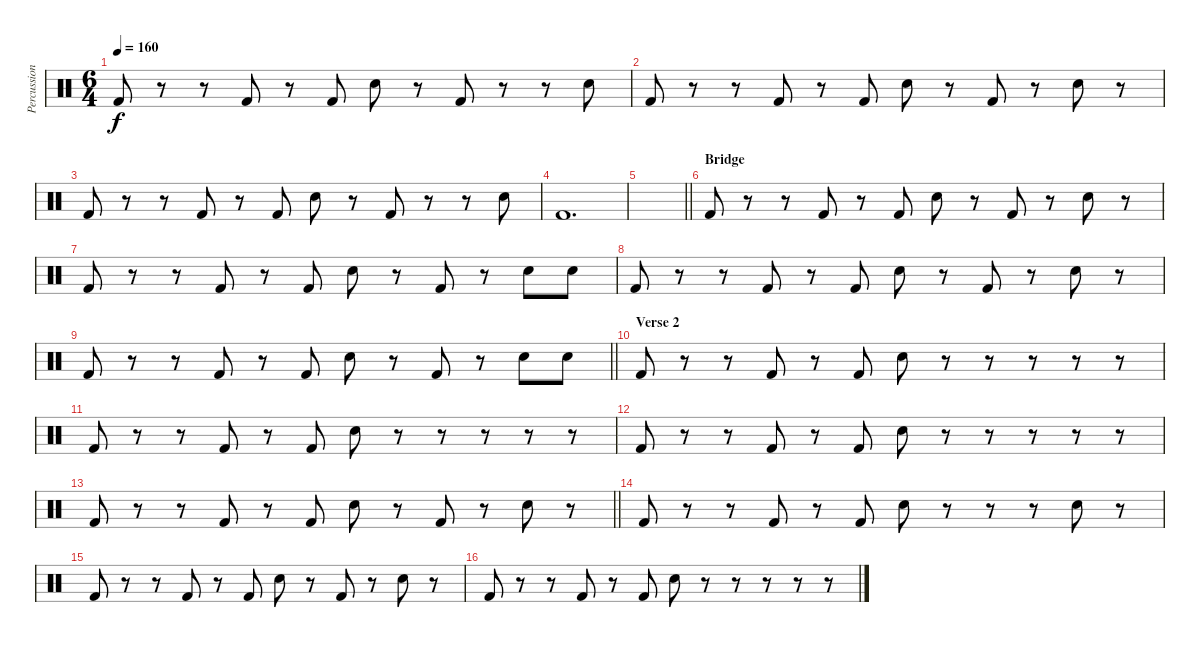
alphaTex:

\track ("Percussion" "Percussion") {instrument percussion}
\staff {score}
\articulation defaults
\ts (6 4)
\tempo 160
\clef neutral
\ks c "Kick (hit) 2".8{dy f}
r.8 r.8 "Kick (hit) 2".8 r.8 "Kick (hit) 2".8 "Snare (hit) 2".8 r.8 "Kick (hit) 2".8 r.8 r.8 "Snare (hit) 2".8 |
"Kick (hit) 2".8 r.8 r.8 "Kick (hit) 2".8 r.8 "Kick (hit) 2".8 "Snare (hit) 2".8 r.8 "Kick (hit) 2".8 r.8 "Snare (hit) 2".8 r.8 |
"Kick (hit) 2".8 r.8 r.8 "Kick (hit) 2".8 r.8 "Kick (hit) 2".8 "Snare (hit) 2".8 r.8 "Kick (hit) 2".8 r.8 r.8 "Snare (hit) 2".8 |
"Kick (hit) 2".1{d} |
\barLineRight lightlight
|
\section ("" "Bridge")
"Kick (hit) 2".8 r.8 r.8 "Kick (hit) 2".8 r.8 "Kick (hit) 2".8 "Snare (hit) 2".8 r.8 "Kick (hit) 2".8 r.8 "Snare (hit) 2".8 r.8 |
"Kick (hit) 2".8 r.8 r.8 "Kick (hit) 2".8 r.8 "Kick (hit) 2".8 "Snare (hit) 2".8 r.8 "Kick (hit) 2".8 r.8 "Snare (hit) 2".8 "Snare (hit) 2".8 |
"Kick (hit) 2".8 r.8 r.8 "Kick (hit) 2".8 r.8 "Kick (hit) 2".8 "Snare (hit) 2".8 r.8 "Kick (hit) 2".8 r.8 "Snare (hit) 2".8 r.8 |
\barLineRight lightlight "Kick (hit) 2".8
r.8 r.8 "Kick (hit) 2".8 r.8 "Kick (hit) 2".8 "Snare (hit) 2".8 r.8 "Kick (hit) 2".8 r.8 "Snare (hit) 2".8 "Snare (hit) 2".8 |
\section ("" "Verse 2")
"Kick (hit) 2".8 r.8 r.8 "Kick (hit) 2".8 r.8 "Kick (hit) 2".8 "Snare (hit) 2".8 r.8 r.8 r.8 r.8 r.8 |
"Kick (hit) 2".8 r.8 r.8 "Kick (hit) 2".8 r.8 "Kick (hit) 2".8 "Snare (hit) 2".8 r.8 r.8 r.8 r.8 r.8 |
"Kick (hit) 2".8 r.8 r.8 "Kick (hit) 2".8 r.8 "Kick (hit) 2".8 "Snare (hit) 2".8 r.8 r.8 r.8 r.8 r.8 |
\barLineRight lightlight "Kick (hit) 2".8
r.8 r.8 "Kick (hit) 2".8 r.8 "Kick (hit) 2".8 "Snare (hit) 2".8 r.8 "Kick (hit) 2".8 r.8 "Snare (hit) 2".8 r.8 |
"Kick (hit) 2".8 r.8 r.8 "Kick (hit) 2".8 r.8 "Kick (hit) 2".8 "Snare (hit) 2".8 r.8 r.8 r.8 "Snare (hit) 2".8 r.8 |
"Kick (hit) 2".8 r.8 r.8 "Kick (hit) 2".8 r.8 "Kick (hit) 2".8 "Snare (hit) 2".8 r.8 "Kick (hit) 2".8 r.8 "Snare (hit) 2".8 r.8 |
"Kick (hit) 2".8 r.8 r.8 "Kick (hit) 2".8 r.8 "Kick (hit) 2".8 "Snare (hit) 2".8 r.8 r.8 r.8 r.8 r.8
